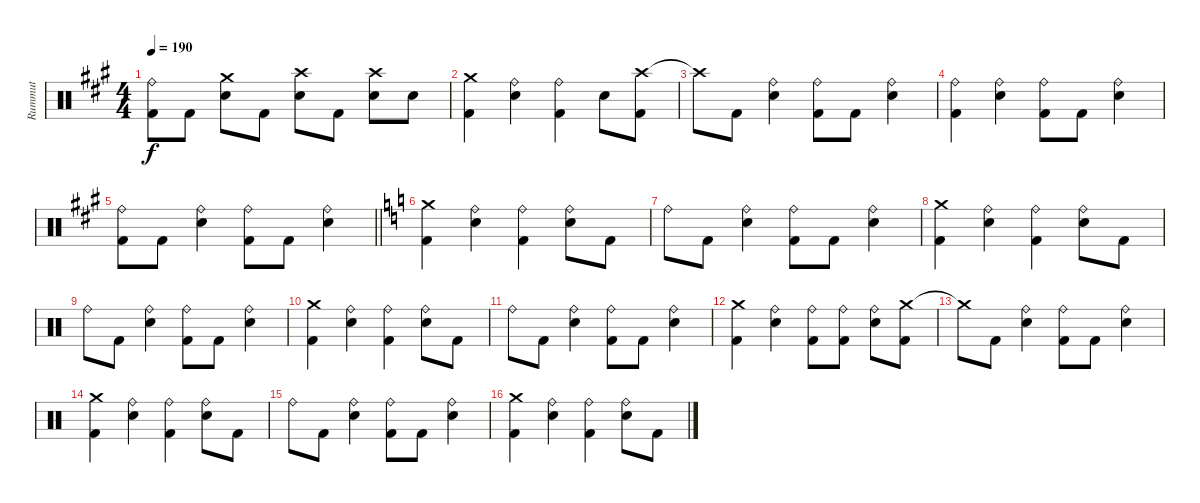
\track ("Rummut" "Rummut") {instrument percussion}
\staff {score}
\articulation defaults
\ts (4 4)
\tempo 190
\clef neutral
\ks a
("Ride (bell)" "Kick (hit) 2").8{dy f} "Kick (hit) 2".8 ("Crash medium (hit)" "Snare (hit) 2").8 "Kick (hit) 2".8 ("Crash high (hit)" "Snare (hit) 2").8 "Kick (hit) 2".8 ("Crash high (hit)" "Snare (hit) 2").8 "Snare (hit) 2".8 |
("Crash medium (hit)" "Kick (hit) 2").4 ("Ride (bell)" "Snare (hit) 2").4 ("Ride (bell)" "Kick (hit) 2").4 "Snare (hit) 2".8 ("Crash high (hit)" "Kick (hit) 2").8 |
"Crash high (hit)"{t}.8 "Kick (hit) 2".8 ("Ride (bell)" "Snare (hit) 2").4 ("Ride (bell)" "Kick (hit) 2").8 "Kick (hit) 2".8 ("Ride (bell)" "Snare (hit) 2").4 |
("Ride (bell)" "Kick (hit) 2").4 ("Ride (bell)" "Snare (hit) 2").4 ("Ride (bell)" "Kick (hit) 2").8 "Kick (hit) 2".8 ("Ride (bell)" "Snare (hit) 2").4 |
\barLineRight lightlight
("Ride (bell)" "Kick (hit) 2").8 "Kick (hit) 2".8 ("Ride (bell)" "Snare (hit) 2").4 ("Ride (bell)" "Kick (hit) 2").8 "Kick (hit) 2".8 ("Ride (bell)" "Snare (hit) 2").4 |
\ks c
("Crash medium (hit)" "Kick (hit) 2").4 ("Ride (bell)" "Snare (hit) 2").4 ("Ride (bell)" "Kick (hit) 2").4 ("Ride (bell)" "Snare (hit) 2").8 "Kick (hit) 2".8 |
"Ride (bell)".8 "Kick (hit) 2".8 ("Ride (bell)" "Snare (hit) 2").4 ("Ride (bell)" "Kick (hit) 2").8 "Kick (hit) 2".8 ("Ride (bell)" "Snare (hit) 2").4 |
("Crash medium (hit)" "Kick (hit) 2").4 ("Ride (bell)" "Snare (hit) 2").4 ("Ride (bell)" "Kick (hit) 2").4 ("Ride (bell)" "Snare (hit) 2").8 "Kick (hit) 2".8 |
"Ride (bell)".8 "Kick (hit) 2".8 ("Ride (bell)" "Snare (hit) 2").4 ("Ride (bell)" "Kick (hit) 2").8 "Kick (hit) 2".8 ("Ride (bell)" "Snare (hit) 2").4 |
("Crash medium (hit)" "Kick (hit) 2").4 ("Ride (bell)" "Snare (hit) 2").4 ("Ride (bell)" "Kick (hit) 2").4 ("Ride (bell)" "Snare (hit) 2").8 "Kick (hit) 2".8 |
"Ride (bell)".8 "Kick (hit) 2".8 ("Ride (bell)" "Snare (hit) 2").4 ("Ride (bell)" "Kick (hit) 2").8 "Kick (hit) 2".8 ("Ride (bell)" "Snare (hit) 2").4 |
("Crash medium (hit)" "Kick (hit) 2").4 ("Ride (bell)" "Snare (hit) 2").4 ("Ride (bell)" "Kick (hit) 2").8 ("Ride (bell)" "Kick (hit) 2").8 ("Ride (bell)" "Snare (hit) 2").8 ("Crash medium (hit)" "Kick (hit) 2").8 |
"Crash medium (hit)"{t}.8 "Kick (hit) 2".8 ("Ride (bell)" "Snare (hit) 2").4 ("Ride (bell)" "Kick (hit) 2").8 "Kick (hit) 2".8 ("Ride (bell)" "Snare (hit) 2").4 |
("Crash medium (hit)" "Kick (hit) 2").4 ("Ride (bell)" "Snare (hit) 2").4 ("Ride (bell)" "Kick (hit) 2").4 ("Ride (bell)" "Snare (hit) 2").8 "Kick (hit) 2".8 |
"Ride (bell)".8 "Kick (hit) 2".8 ("Ride (bell)" "Snare (hit) 2").4 ("Ride (bell)" "Kick (hit) 2").8 "Kick (hit) 2".8 ("Ride (bell)" "Snare (hit) 2").4 |
("Crash medium (hit)" "Kick (hit) 2").4 ("Ride (bell)" "Snare (hit) 2").4 ("Ride (bell)" "Kick (hit) 2").4 ("Ride (bell)" "Snare (hit) 2").8 "Kick (hit) 2".8
